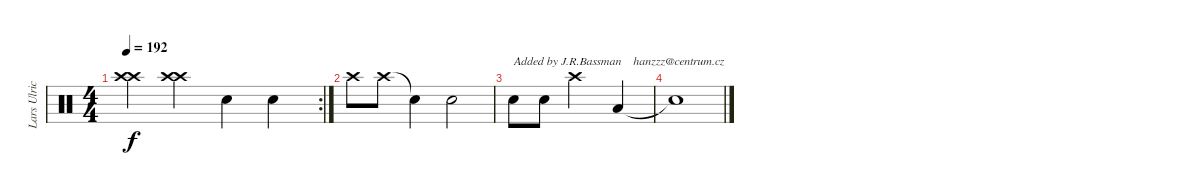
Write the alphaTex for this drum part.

\track ("Lars Ulrich" "Lars Ulric") {instrument percussion}
\staff {score}
\articulation defaults
\rc 2
\ts (4 4)
\tempo 192
\clef neutral
\ks c
("Crash high (hit)" "Crash high (hit)").4{dy f} ("Crash high (hit)" "Crash high (hit)").4 "Snare (hit) 2".4 "Snare (hit) 2".4 |
"Crash high (hit)".8 "Crash high (hit)".8 "Snare (hit)"{t}.4 "Snare (hit) 2".2 |
"Snare (hit) 2".8{txt "Added by J.R.Bassman    hanzzz@centrum.cz"} "Snare (hit) 2".8 "Crash high (hit)".2 "Low Tom (hit)".4 |
"Snare (hit)"{t}.1
